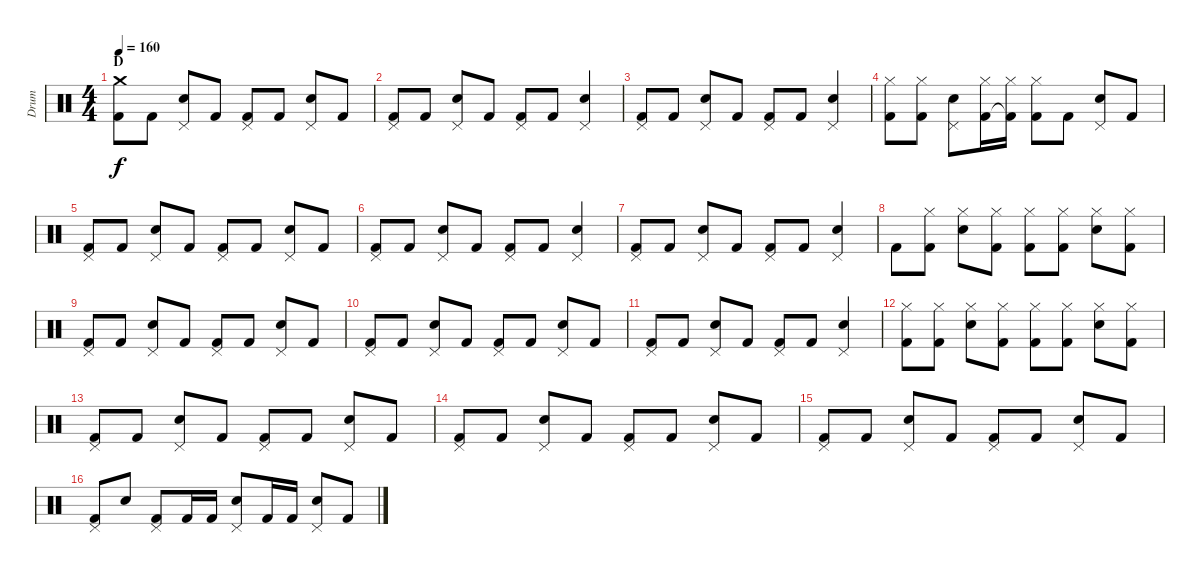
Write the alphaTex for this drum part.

\track ("Drum" "Drum") {instrument percussion}
\staff {score}
\articulation defaults
\ts (4 4)
\section ("" "D")
\tempo 160
\clef neutral
\ks c
("Crash medium (hit)" "Kick (hit) 2").8{dy f} "Kick (hit) 2".8 ("Pedal Hi-Hat (hit)" "Snare (hit) 2").8 "Kick (hit) 2".8 ("Pedal Hi-Hat (hit)" "Kick (hit) 2").8 "Kick (hit) 2".8 ("Pedal Hi-Hat (hit)" "Snare (hit) 2").8 "Kick (hit) 2".8 |
("Pedal Hi-Hat (hit)" "Kick (hit) 2").8 "Kick (hit) 2".8 ("Pedal Hi-Hat (hit)" "Snare (hit) 2").8 "Kick (hit) 2".8 ("Pedal Hi-Hat (hit)" "Kick (hit) 2").8 "Kick (hit) 2".8 ("Pedal Hi-Hat (hit)" "Snare (hit) 2").4 |
("Pedal Hi-Hat (hit)" "Kick (hit) 2").8 "Kick (hit) 2".8 ("Pedal Hi-Hat (hit)" "Snare (hit) 2").8 "Kick (hit) 2".8 ("Pedal Hi-Hat (hit)" "Kick (hit) 2").8 "Kick (hit) 2".8 ("Pedal Hi-Hat (hit)" "Snare (hit) 2").4 |
("Hi-Hat (closed)" "Kick (hit) 2").8 ("Hi-Hat (closed)" "Kick (hit) 2").8 ("Pedal Hi-Hat (hit)" "Snare (hit) 2").8 ("Hi-Hat (closed)" "Kick (hit) 2").16 ("Hi-Hat (closed)" "Kick (hit) 2"{t}).16 ("Hi-Hat (closed)" "Kick (hit) 2").8 "Kick (hit) 2".8 ("Pedal Hi-Hat (hit)" "Snare (hit) 2").8 "Kick (hit) 2".8 |
("Pedal Hi-Hat (hit)" "Kick (hit) 2").8 "Kick (hit) 2".8 ("Pedal Hi-Hat (hit)" "Snare (hit) 2").8 "Kick (hit) 2".8 ("Pedal Hi-Hat (hit)" "Kick (hit) 2").8 "Kick (hit) 2".8 ("Pedal Hi-Hat (hit)" "Snare (hit) 2").8 "Kick (hit) 2".8 |
("Pedal Hi-Hat (hit)" "Kick (hit) 2").8 "Kick (hit) 2".8 ("Pedal Hi-Hat (hit)" "Snare (hit) 2").8 "Kick (hit) 2".8 ("Pedal Hi-Hat (hit)" "Kick (hit) 2").8 "Kick (hit) 2".8 ("Pedal Hi-Hat (hit)" "Snare (hit) 2").4 |
("Pedal Hi-Hat (hit)" "Kick (hit) 2").8 "Kick (hit) 2".8 ("Pedal Hi-Hat (hit)" "Snare (hit) 2").8 "Kick (hit) 2".8 ("Pedal Hi-Hat (hit)" "Kick (hit) 2").8 "Kick (hit) 2".8 ("Pedal Hi-Hat (hit)" "Snare (hit) 2").4 |
"Kick (hit) 2".8 ("Hi-Hat (closed)" "Kick (hit) 2").8 ("Hi-Hat (closed)" "Snare (hit) 2").8 ("Hi-Hat (closed)" "Kick (hit) 2").8 ("Hi-Hat (closed)" "Kick (hit) 2").8 ("Hi-Hat (closed)" "Kick (hit) 2").8 ("Hi-Hat (closed)" "Snare (hit) 2").8 ("Hi-Hat (closed)" "Kick (hit) 2").8 |
("Pedal Hi-Hat (hit)" "Kick (hit) 2").8 "Kick (hit) 2".8 ("Pedal Hi-Hat (hit)" "Snare (hit) 2").8 "Kick (hit) 2".8 ("Pedal Hi-Hat (hit)" "Kick (hit) 2").8 "Kick (hit) 2".8 ("Pedal Hi-Hat (hit)" "Snare (hit) 2").8 "Kick (hit) 2".8 |
("Pedal Hi-Hat (hit)" "Kick (hit) 2").8 "Kick (hit) 2".8 ("Pedal Hi-Hat (hit)" "Snare (hit) 2").8 "Kick (hit) 2".8 ("Pedal Hi-Hat (hit)" "Kick (hit) 2").8 "Kick (hit) 2".8 ("Pedal Hi-Hat (hit)" "Snare (hit) 2").8 "Kick (hit) 2".8 |
("Pedal Hi-Hat (hit)" "Kick (hit) 2").8 "Kick (hit) 2".8 ("Pedal Hi-Hat (hit)" "Snare (hit) 2").8 "Kick (hit) 2".8 ("Pedal Hi-Hat (hit)" "Kick (hit) 2").8 "Kick (hit) 2".8 ("Pedal Hi-Hat (hit)" "Snare (hit) 2").4 |
("Hi-Hat (closed)" "Kick (hit) 2").8 ("Hi-Hat (closed)" "Kick (hit) 2").8 ("Hi-Hat (closed)" "Snare (hit) 2").8 ("Hi-Hat (closed)" "Kick (hit) 2").8 ("Hi-Hat (closed)" "Kick (hit) 2").8 ("Hi-Hat (closed)" "Kick (hit) 2").8 ("Hi-Hat (closed)" "Snare (hit) 2").8 ("Hi-Hat (closed)" "Kick (hit) 2").8 |
("Pedal Hi-Hat (hit)" "Kick (hit) 2").8 "Kick (hit) 2".8 ("Pedal Hi-Hat (hit)" "Snare (hit) 2").8 "Kick (hit) 2".8 ("Pedal Hi-Hat (hit)" "Kick (hit) 2").8 "Kick (hit) 2".8 ("Pedal Hi-Hat (hit)" "Snare (hit) 2").8 "Kick (hit) 2".8 |
("Pedal Hi-Hat (hit)" "Kick (hit) 2").8 "Kick (hit) 2".8 ("Pedal Hi-Hat (hit)" "Snare (hit) 2").8 "Kick (hit) 2".8 ("Pedal Hi-Hat (hit)" "Kick (hit) 2").8 "Kick (hit) 2".8 ("Pedal Hi-Hat (hit)" "Snare (hit) 2").8 "Kick (hit) 2".8 |
("Pedal Hi-Hat (hit)" "Kick (hit) 2").8 "Kick (hit) 2".8 ("Pedal Hi-Hat (hit)" "Snare (hit) 2").8 "Kick (hit) 2".8 ("Pedal Hi-Hat (hit)" "Kick (hit) 2").8 "Kick (hit) 2".8 ("Pedal Hi-Hat (hit)" "Snare (hit) 2").8 "Kick (hit) 2".8 |
("Pedal Hi-Hat (hit)" "Kick (hit) 2").8 "Snare (hit) 2".8 ("Pedal Hi-Hat (hit)" "Kick (hit) 2").8 "Kick (hit) 2".16 "Kick (hit) 2".16 ("Pedal Hi-Hat (hit)" "Snare (hit) 2").8 "Kick (hit) 2".16 "Kick (hit) 2".16 ("Pedal Hi-Hat (hit)" "Snare (hit) 2").8 "Kick (hit) 2".8
